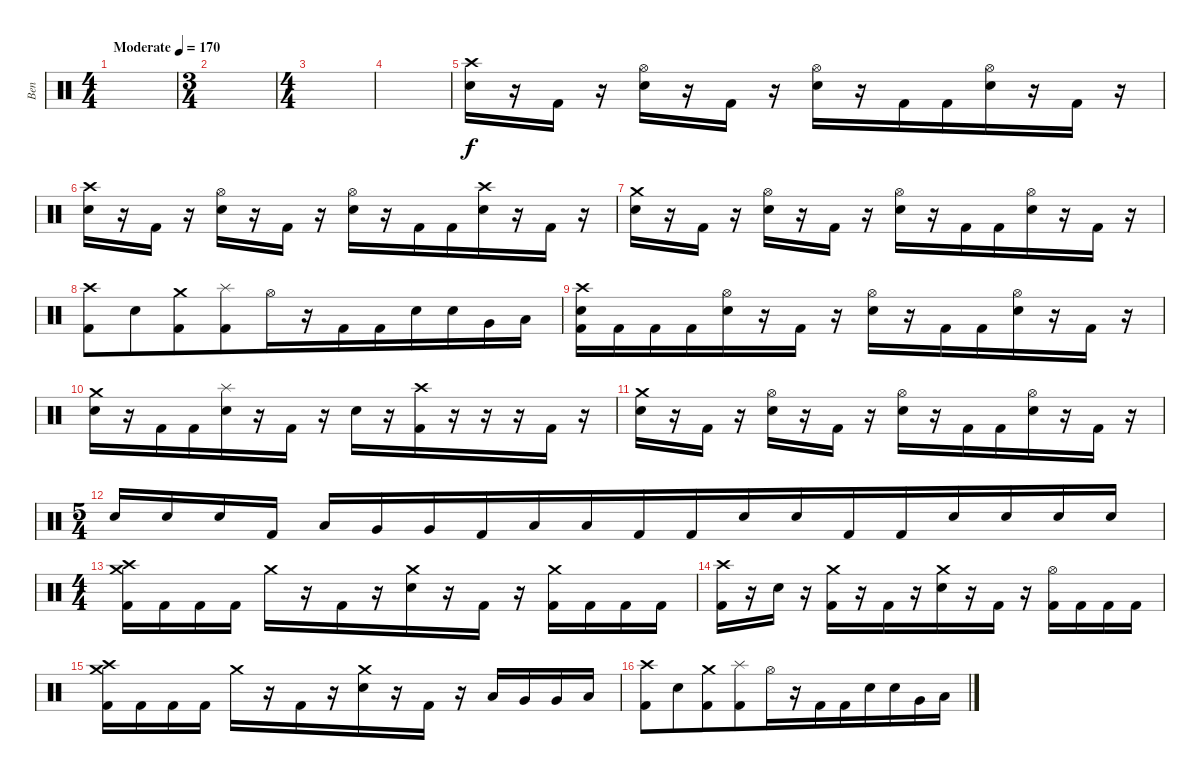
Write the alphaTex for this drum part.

\track ("Ben" "Ben") {instrument percussion}
\staff {score}
\articulation defaults
\ts (4 4)
\tempo (170 "Moderate")
\clef neutral
\ks c
|
\ts (3 4)
|
\ts (4 4)
|
|
("Crash high (hit)" "Electric Snare (hit)").16 r.16{beam merge} "Kick (hit) 2".16 r.16{beam merge} ("Hi-Hat (open)" "Electric Snare (hit)").16{beam merge} r.16{beam merge} "Kick (hit) 2".16 r.16{beam merge} ("Electric Snare (hit)" "Hi-Hat (open)").16{beam merge} r.16{beam merge} "Kick (hit) 2".16 "Kick (hit) 2".16{beam merge} ("Electric Snare (hit)" "Hi-Hat (open)").16{beam merge} r.16 "Kick (hit) 2".16 r.16 |
("Crash high (hit)" "Electric Snare (hit)").16 r.16{beam merge} "Kick (hit) 2".16 r.16{beam merge} ("Hi-Hat (open)" "Electric Snare (hit)").16{beam merge} r.16{beam merge} "Kick (hit) 2".16 r.16{beam merge} ("Electric Snare (hit)" "Hi-Hat (open)").16{beam merge} r.16{beam merge} "Kick (hit) 2".16 "Kick (hit) 2".16{beam merge} ("Electric Snare (hit)" "Crash high (hit)").16{beam merge} r.16 "Kick (hit) 2".16{beam merge} r.16 |
("Crash medium (hit)" "Electric Snare (hit)").16 r.16{beam merge} "Kick (hit) 2".16 r.16{beam merge} ("Hi-Hat (open)" "Electric Snare (hit)").16{beam merge} r.16{beam merge} "Kick (hit) 2".16 r.16{beam merge} ("Electric Snare (hit)" "Hi-Hat (open)").16{beam merge} r.16{beam merge} "Kick (hit) 2".16 "Kick (hit) 2".16{beam merge} ("Electric Snare (hit)" "Hi-Hat (open)").16{beam merge} r.16 "Kick (hit) 2".16{beam merge} r.16 |
("Crash high (hit)" "Kick (hit) 2").8{beam merge} "Electric Snare (hit)".8{beam merge} ("Kick (hit) 2" "Crash medium (hit)").8 ("Kick (hit) 2" "Splash (hit)").8{beam merge} "Hi-Hat (open)".16 r.16 "Kick (hit) 2".16 "Kick (hit) 2".16{beam merge} "Electric Snare (hit)".16 "Electric Snare (hit)".16{beam merge} "Very Low Tom (hit)".16{beam merge} "Low Floor Tom (hit)".16 |
("Crash high (hit)" "Kick (hit) 2" "Electric Snare (hit)").16 "Kick (hit) 2".16{beam merge} "Kick (hit) 2".16 "Kick (hit) 2".16{beam merge} ("Hi-Hat (open)" "Electric Snare (hit)").16{beam merge} r.16{beam merge} "Kick (hit) 2".16 r.16{beam merge} ("Electric Snare (hit)" "Hi-Hat (open)").16{beam merge} r.16{beam merge} "Kick (hit) 2".16 "Kick (hit) 2".16{beam merge} ("Electric Snare (hit)" "Hi-Hat (open)").16{beam merge} r.16 "Kick (hit) 2".16{beam merge} r.16 |
("Crash medium (hit)" "Electric Snare (hit)").16 r.16{beam merge} "Kick (hit) 2".16 "Kick (hit) 2".16{beam merge} ("Splash (hit)" "Electric Snare (hit)").16{beam merge} r.16{beam merge} "Kick (hit) 2".16 r.16 "Electric Snare (hit)".16 r.16{beam merge} ("Crash high (hit)" "Kick (hit) 2").16{beam merge} r.16 r.16{beam merge} r.16{beam merge} "Kick (hit) 2".16{beam merge} r.16 |
("Crash medium (hit)" "Electric Snare (hit)").16 r.16{beam merge} "Kick (hit) 2".16 r.16{beam merge} ("Hi-Hat (open)" "Electric Snare (hit)").16{beam merge} r.16{beam merge} "Kick (hit) 2".16 r.16{beam merge} ("Electric Snare (hit)" "Hi-Hat (open)").16{beam merge} r.16{beam merge} "Kick (hit) 2".16 "Kick (hit) 2".16{beam merge} ("Electric Snare (hit)" "Hi-Hat (open)").16{beam merge} r.16 "Kick (hit) 2".16{beam merge} r.16 |
\ts (5 4)
"Electric Snare (hit)".16{beam merge} "Electric Snare (hit)".16 "Electric Snare (hit)".16{beam merge} "Kick (hit) 2".16 "Low Tom (hit)".16{beam merge} "Very Low Tom (hit)".16 "Very Low Tom (hit)".16 "Kick (hit) 2".16{beam merge} "Low Floor Tom (hit)".16 "Low Floor Tom (hit)".16 "Kick (hit) 2".16{beam merge} "Kick (hit) 2".16{beam merge} "Electric Snare (hit)".16{beam merge} "Electric Snare (hit)".16{beam merge} "Kick (hit) 2".16 "Kick (hit) 2".16{beam merge} "Electric Snare (hit)".16 "Electric Snare (hit)".16{beam merge} "Electric Snare (hit)".16 "Electric Snare (hit)".16 |
\ts (4 4)
("Kick (hit) 2" "Crash medium (hit)" "Crash high (hit)").16 "Kick (hit) 2".16{beam merge} "Kick (hit) 2".16 "Kick (hit) 2".16 "Crash medium (hit)".16{beam merge} r.16 "Kick (hit) 2".16{beam merge} r.16 ("Electric Snare (hit)" "Crash medium (hit)").16 r.16 "Kick (hit) 2".16 r.16 ("Kick (hit) 2" "Crash medium (hit)").16{beam merge} "Kick (hit) 2".16{beam merge} "Kick (hit) 2".16 "Kick (hit) 2".16 |
("Kick (hit) 2" "Crash high (hit)").16 r.16{beam merge} "Electric Snare (hit)".16 r.16 ("Crash medium (hit)" "Kick (hit) 2").16{beam merge} r.16 "Kick (hit) 2".16{beam merge} r.16 ("Electric Snare (hit)" "Crash medium (hit)").16 r.16 "Kick (hit) 2".16 r.16 ("Kick (hit) 2" "Hi-Hat (open)").16{beam merge} "Kick (hit) 2".16{beam merge} "Kick (hit) 2".16 "Kick (hit) 2".16 |
("Kick (hit) 2" "Crash medium (hit)" "Crash high (hit)").16 "Kick (hit) 2".16{beam merge} "Kick (hit) 2".16 "Kick (hit) 2".16 "Crash medium (hit)".16{beam merge} r.16 "Kick (hit) 2".16{beam merge} r.16 ("Electric Snare (hit)" "Crash medium (hit)").16 r.16 "Kick (hit) 2".16 r.16 "Low Tom (hit)".16{beam merge} "Very Low Tom (hit)".16{beam merge} "Very Low Tom (hit)".16 "Low Floor Tom (hit)".16 |
("Crash high (hit)" "Kick (hit) 2").8{beam merge} "Electric Snare (hit)".8{beam merge} ("Kick (hit) 2" "Crash medium (hit)").8 ("Kick (hit) 2" "Splash (hit)").8{beam merge} "Hi-Hat (open)".16 r.16 "Kick (hit) 2".16 "Kick (hit) 2".16{beam merge} "Electric Snare (hit)".16 "Electric Snare (hit)".16{beam merge} "Very Low Tom (hit)".16{beam merge} "Low Floor Tom (hit)".16
